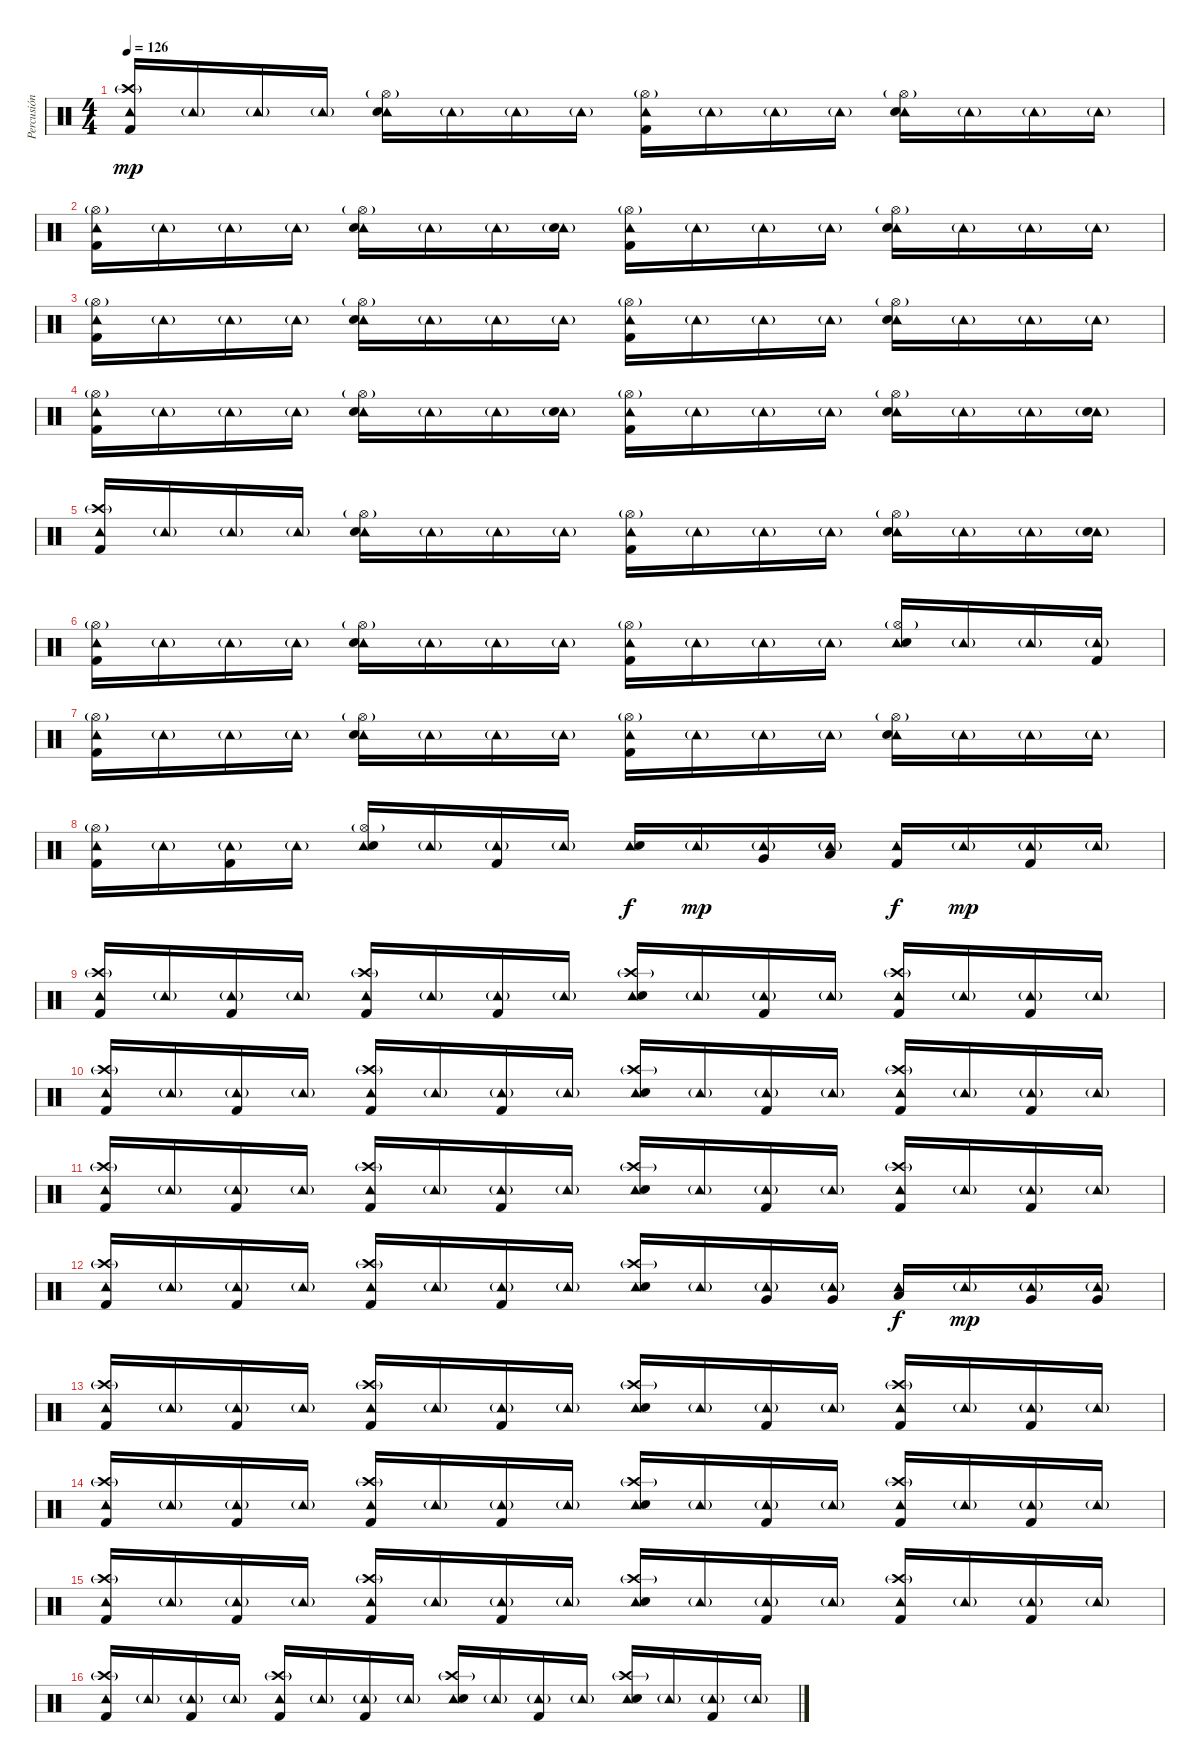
\track ("Percusión" "Percusión") {instrument percussion}
\staff {score}
\articulation defaults
\ts (4 4)
\tempo 126
\clef neutral
\ks c
("Tambourine (hit)" "Crash high (hit)"{g} "Kick (hit) 2").16{dy mp} "Tambourine (hit)"{g}.16 "Tambourine (hit)"{g}.16 "Tambourine (hit)"{g}.16 ("Tambourine (hit)" "Hi-Hat (open)"{g} "Electric Snare (hit)").16 "Tambourine (hit)"{g}.16 "Tambourine (hit)"{g}.16 "Tambourine (hit)"{g}.16 ("Tambourine (hit)" "Hi-Hat (open)"{g} "Kick (hit) 2").16 "Tambourine (hit)"{g}.16 "Tambourine (hit)"{g}.16 "Tambourine (hit)"{g}.16 ("Tambourine (hit)" "Hi-Hat (open)"{g} "Electric Snare (hit)").16 "Tambourine (hit)"{g}.16 "Tambourine (hit)"{g}.16 "Tambourine (hit)"{g}.16 |
("Tambourine (hit)" "Hi-Hat (open)"{g} "Kick (hit) 2").16 "Tambourine (hit)"{g}.16 "Tambourine (hit)"{g}.16 "Tambourine (hit)"{g}.16 ("Tambourine (hit)" "Hi-Hat (open)"{g} "Electric Snare (hit)").16 "Tambourine (hit)"{g}.16 "Tambourine (hit)"{g}.16 ("Tambourine (hit)"{g} "Electric Snare (hit)").16 ("Tambourine (hit)" "Hi-Hat (open)"{g} "Kick (hit) 2").16 "Tambourine (hit)"{g}.16 "Tambourine (hit)"{g}.16 "Tambourine (hit)"{g}.16 ("Tambourine (hit)" "Hi-Hat (open)"{g} "Electric Snare (hit)").16 "Tambourine (hit)"{g}.16 "Tambourine (hit)"{g}.16 "Tambourine (hit)"{g}.16 |
("Tambourine (hit)" "Hi-Hat (open)"{g} "Kick (hit) 2").16 "Tambourine (hit)"{g}.16 "Tambourine (hit)"{g}.16 "Tambourine (hit)"{g}.16 ("Tambourine (hit)" "Hi-Hat (open)"{g} "Electric Snare (hit)").16 "Tambourine (hit)"{g}.16 "Tambourine (hit)"{g}.16 "Tambourine (hit)"{g}.16 ("Tambourine (hit)" "Hi-Hat (open)"{g} "Kick (hit) 2").16 "Tambourine (hit)"{g}.16 "Tambourine (hit)"{g}.16 "Tambourine (hit)"{g}.16 ("Tambourine (hit)" "Hi-Hat (open)"{g} "Electric Snare (hit)").16 "Tambourine (hit)"{g}.16 "Tambourine (hit)"{g}.16 "Tambourine (hit)"{g}.16 |
("Tambourine (hit)" "Hi-Hat (open)"{g} "Kick (hit) 2").16 "Tambourine (hit)"{g}.16 "Tambourine (hit)"{g}.16 "Tambourine (hit)"{g}.16 ("Tambourine (hit)" "Hi-Hat (open)"{g} "Electric Snare (hit)").16 "Tambourine (hit)"{g}.16 "Tambourine (hit)"{g}.16 ("Tambourine (hit)"{g} "Electric Snare (hit)").16 ("Tambourine (hit)" "Hi-Hat (open)"{g} "Kick (hit) 2").16 "Tambourine (hit)"{g}.16 "Tambourine (hit)"{g}.16 "Tambourine (hit)"{g}.16 ("Tambourine (hit)" "Hi-Hat (open)"{g} "Electric Snare (hit)").16 "Tambourine (hit)"{g}.16 "Tambourine (hit)"{g}.16 ("Tambourine (hit)"{g} "Electric Snare (hit)").16 |
("Tambourine (hit)" "Crash high (hit)"{g} "Kick (hit) 2").16 "Tambourine (hit)"{g}.16 "Tambourine (hit)"{g}.16 "Tambourine (hit)"{g}.16 ("Tambourine (hit)" "Hi-Hat (open)"{g} "Electric Snare (hit)").16 "Tambourine (hit)"{g}.16 "Tambourine (hit)"{g}.16 "Tambourine (hit)"{g}.16 ("Tambourine (hit)" "Hi-Hat (open)"{g} "Kick (hit) 2").16 "Tambourine (hit)"{g}.16 "Tambourine (hit)"{g}.16 "Tambourine (hit)"{g}.16 ("Tambourine (hit)" "Hi-Hat (open)"{g} "Electric Snare (hit)").16 "Tambourine (hit)"{g}.16 "Tambourine (hit)"{g}.16 ("Tambourine (hit)"{g} "Electric Snare (hit)").16 |
("Tambourine (hit)" "Hi-Hat (open)"{g} "Kick (hit) 2").16 "Tambourine (hit)"{g}.16 "Tambourine (hit)"{g}.16 "Tambourine (hit)"{g}.16 ("Tambourine (hit)" "Hi-Hat (open)"{g} "Electric Snare (hit)").16 "Tambourine (hit)"{g}.16 "Tambourine (hit)"{g}.16 "Tambourine (hit)"{g}.16 ("Tambourine (hit)" "Hi-Hat (open)"{g} "Kick (hit) 2").16 "Tambourine (hit)"{g}.16 "Tambourine (hit)"{g}.16 "Tambourine (hit)"{g}.16 ("Tambourine (hit)" "Hi-Hat (open)"{g} "Electric Snare (hit)").16 "Tambourine (hit)"{g}.16 "Tambourine (hit)"{g}.16 ("Tambourine (hit)"{g} "Kick (hit) 2").16 |
("Tambourine (hit)" "Hi-Hat (open)"{g} "Kick (hit) 2").16 "Tambourine (hit)"{g}.16 "Tambourine (hit)"{g}.16 "Tambourine (hit)"{g}.16 ("Tambourine (hit)" "Hi-Hat (open)"{g} "Electric Snare (hit)").16 "Tambourine (hit)"{g}.16 "Tambourine (hit)"{g}.16 "Tambourine (hit)"{g}.16 ("Tambourine (hit)" "Hi-Hat (open)"{g} "Kick (hit) 2").16 "Tambourine (hit)"{g}.16 "Tambourine (hit)"{g}.16 "Tambourine (hit)"{g}.16 ("Tambourine (hit)" "Hi-Hat (open)"{g} "Electric Snare (hit)").16 "Tambourine (hit)"{g}.16 "Tambourine (hit)"{g}.16 "Tambourine (hit)"{g}.16 |
("Tambourine (hit)" "Hi-Hat (open)"{g} "Kick (hit) 2").16 "Tambourine (hit)"{g}.16 ("Tambourine (hit)"{g} "Kick (hit) 2").16 "Tambourine (hit)"{g}.16 ("Tambourine (hit)" "Hi-Hat (open)"{g} "Electric Snare (hit)").16 "Tambourine (hit)"{g}.16 ("Tambourine (hit)"{g} "Kick (hit) 2").16 "Tambourine (hit)"{g}.16 ("Tambourine (hit)" "Electric Snare (hit)").16{dy f} "Tambourine (hit)"{g}.16{dy mp} ("Tambourine (hit)"{g} "Very Low Tom (hit)").16 ("Tambourine (hit)"{g} "Low Floor Tom (hit)").16 ("Tambourine (hit)" "Kick (hit) 2").16{dy f} "Tambourine (hit)"{g}.16{dy mp} ("Tambourine (hit)"{g} "Kick (hit) 2").16 "Tambourine (hit)"{g}.16 |
("Tambourine (hit)" "Crash high (hit)"{g} "Kick (hit) 2").16 "Tambourine (hit)"{g}.16 ("Tambourine (hit)"{g} "Kick (hit) 2").16 "Tambourine (hit)"{g}.16 ("Tambourine (hit)" "Crash high (hit)"{g} "Kick (hit) 2").16 "Tambourine (hit)"{g}.16 ("Tambourine (hit)"{g} "Kick (hit) 2").16 "Tambourine (hit)"{g}.16 ("Tambourine (hit)" "Crash high (hit)"{g} "Electric Snare (hit)").16 "Tambourine (hit)"{g}.16 ("Tambourine (hit)"{g} "Kick (hit) 2").16 "Tambourine (hit)"{g}.16 ("Tambourine (hit)" "Crash high (hit)"{g} "Kick (hit) 2").16 "Tambourine (hit)"{g}.16 ("Tambourine (hit)"{g} "Kick (hit) 2").16 "Tambourine (hit)"{g}.16 |
("Tambourine (hit)" "Crash high (hit)"{g} "Kick (hit) 2").16 "Tambourine (hit)"{g}.16 ("Tambourine (hit)"{g} "Kick (hit) 2").16 "Tambourine (hit)"{g}.16 ("Tambourine (hit)" "Crash high (hit)"{g} "Kick (hit) 2").16 "Tambourine (hit)"{g}.16 ("Tambourine (hit)"{g} "Kick (hit) 2").16 "Tambourine (hit)"{g}.16 ("Tambourine (hit)" "Crash high (hit)"{g} "Electric Snare (hit)").16 "Tambourine (hit)"{g}.16 ("Tambourine (hit)"{g} "Kick (hit) 2").16 "Tambourine (hit)"{g}.16 ("Tambourine (hit)" "Crash high (hit)"{g} "Kick (hit) 2").16 "Tambourine (hit)"{g}.16 ("Tambourine (hit)"{g} "Kick (hit) 2").16 "Tambourine (hit)"{g}.16 |
("Tambourine (hit)" "Crash high (hit)"{g} "Kick (hit) 2").16 "Tambourine (hit)"{g}.16 ("Tambourine (hit)"{g} "Kick (hit) 2").16 "Tambourine (hit)"{g}.16 ("Tambourine (hit)" "Crash high (hit)"{g} "Kick (hit) 2").16 "Tambourine (hit)"{g}.16 ("Tambourine (hit)"{g} "Kick (hit) 2").16 "Tambourine (hit)"{g}.16 ("Tambourine (hit)" "Crash high (hit)"{g} "Electric Snare (hit)").16 "Tambourine (hit)"{g}.16 ("Tambourine (hit)"{g} "Kick (hit) 2").16 "Tambourine (hit)"{g}.16 ("Tambourine (hit)" "Crash high (hit)"{g} "Kick (hit) 2").16 "Tambourine (hit)"{g}.16 ("Tambourine (hit)"{g} "Kick (hit) 2").16 "Tambourine (hit)"{g}.16 |
("Tambourine (hit)" "Crash high (hit)"{g} "Kick (hit) 2").16 "Tambourine (hit)"{g}.16 ("Tambourine (hit)"{g} "Kick (hit) 2").16 "Tambourine (hit)"{g}.16 ("Tambourine (hit)" "Crash high (hit)"{g} "Kick (hit) 2").16 "Tambourine (hit)"{g}.16 ("Tambourine (hit)"{g} "Kick (hit) 2").16 "Tambourine (hit)"{g}.16 ("Tambourine (hit)" "Crash high (hit)"{g} "Electric Snare (hit)").16 "Tambourine (hit)"{g}.16 ("Tambourine (hit)"{g} "Very Low Tom (hit)").16 ("Tambourine (hit)"{g} "Very Low Tom (hit)").16 ("Tambourine (hit)" "Low Floor Tom (hit)").16{dy f} "Tambourine (hit)"{g}.16{dy mp} ("Tambourine (hit)"{g} "Very Low Tom (hit)").16 ("Tambourine (hit)"{g} "Very Low Tom (hit)").16 |
("Tambourine (hit)" "Crash high (hit)"{g} "Kick (hit) 2").16 "Tambourine (hit)"{g}.16 ("Tambourine (hit)"{g} "Kick (hit) 2").16 "Tambourine (hit)"{g}.16 ("Tambourine (hit)" "Crash high (hit)"{g} "Kick (hit) 2").16 "Tambourine (hit)"{g}.16 ("Tambourine (hit)"{g} "Kick (hit) 2").16 "Tambourine (hit)"{g}.16 ("Tambourine (hit)" "Crash high (hit)"{g} "Electric Snare (hit)").16 "Tambourine (hit)"{g}.16 ("Tambourine (hit)"{g} "Kick (hit) 2").16 "Tambourine (hit)"{g}.16 ("Tambourine (hit)" "Crash high (hit)"{g} "Kick (hit) 2").16 "Tambourine (hit)"{g}.16 ("Tambourine (hit)"{g} "Kick (hit) 2").16 "Tambourine (hit)"{g}.16 |
("Tambourine (hit)" "Crash high (hit)"{g} "Kick (hit) 2").16 "Tambourine (hit)"{g}.16 ("Tambourine (hit)"{g} "Kick (hit) 2").16 "Tambourine (hit)"{g}.16 ("Tambourine (hit)" "Crash high (hit)"{g} "Kick (hit) 2").16 "Tambourine (hit)"{g}.16 ("Tambourine (hit)"{g} "Kick (hit) 2").16 "Tambourine (hit)"{g}.16 ("Tambourine (hit)" "Crash high (hit)"{g} "Electric Snare (hit)").16 "Tambourine (hit)"{g}.16 ("Tambourine (hit)"{g} "Kick (hit) 2").16 "Tambourine (hit)"{g}.16 ("Tambourine (hit)" "Crash high (hit)"{g} "Kick (hit) 2").16 "Tambourine (hit)"{g}.16 ("Tambourine (hit)"{g} "Kick (hit) 2").16 "Tambourine (hit)"{g}.16 |
("Tambourine (hit)" "Crash high (hit)"{g} "Kick (hit) 2").16 "Tambourine (hit)"{g}.16 ("Tambourine (hit)"{g} "Kick (hit) 2").16 "Tambourine (hit)"{g}.16 ("Tambourine (hit)" "Crash high (hit)"{g} "Kick (hit) 2").16 "Tambourine (hit)"{g}.16 ("Tambourine (hit)"{g} "Kick (hit) 2").16 "Tambourine (hit)"{g}.16 ("Tambourine (hit)" "Crash high (hit)"{g} "Electric Snare (hit)").16 "Tambourine (hit)"{g}.16 ("Tambourine (hit)"{g} "Kick (hit) 2").16 "Tambourine (hit)"{g}.16 ("Tambourine (hit)" "Crash high (hit)"{g} "Kick (hit) 2").16 "Tambourine (hit)"{g}.16 ("Tambourine (hit)"{g} "Kick (hit) 2").16 "Tambourine (hit)"{g}.16 |
("Tambourine (hit)" "Crash high (hit)"{g} "Kick (hit) 2").16 "Tambourine (hit)"{g}.16 ("Tambourine (hit)"{g} "Kick (hit) 2").16 "Tambourine (hit)"{g}.16 ("Tambourine (hit)" "Crash high (hit)"{g} "Kick (hit) 2").16 "Tambourine (hit)"{g}.16 ("Tambourine (hit)"{g} "Kick (hit) 2").16 "Tambourine (hit)"{g}.16 ("Tambourine (hit)" "Crash high (hit)"{g} "Electric Snare (hit)").16 "Tambourine (hit)"{g}.16 ("Tambourine (hit)"{g} "Kick (hit) 2").16 "Tambourine (hit)"{g}.16 ("Tambourine (hit)" "Crash high (hit)"{g} "Electric Snare (hit)").16 "Tambourine (hit)"{g}.16 ("Tambourine (hit)"{g} "Kick (hit) 2").16 "Tambourine (hit)"{g}.16
